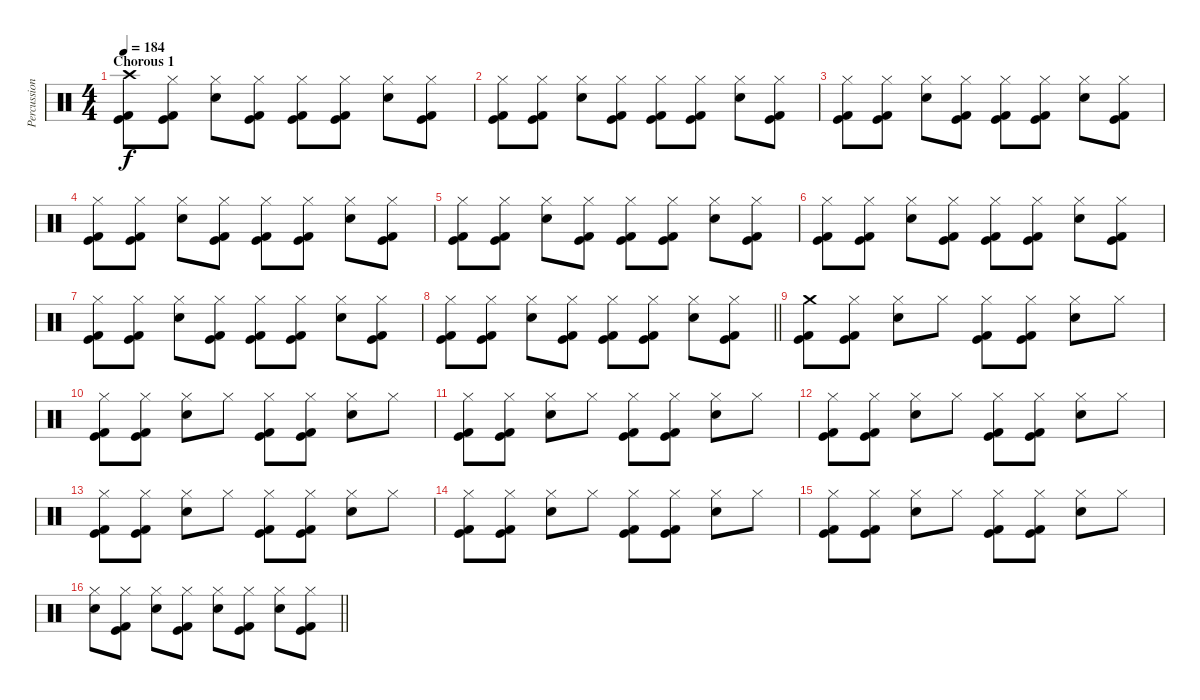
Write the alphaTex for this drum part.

\track ("Percussion" "Percussion") {instrument percussion}
\staff {score}
\articulation defaults
\ts (4 4)
\section ("" "Chorous 1")
\tempo 184
\clef neutral
\ks c
("Crash high (hit)" "Kick (hit)" "Kick (hit) 2").8{dy f} ("Hi-Hat (closed)" "Kick (hit)" "Kick (hit) 2").8 ("Hi-Hat (closed)" "Electric Snare (hit)").8 ("Hi-Hat (closed)" "Kick (hit)" "Kick (hit) 2").8 ("Hi-Hat (closed)" "Kick (hit)" "Kick (hit) 2").8 ("Hi-Hat (closed)" "Kick (hit)" "Kick (hit) 2").8 ("Hi-Hat (closed)" "Electric Snare (hit)").8 ("Hi-Hat (closed)" "Kick (hit)" "Kick (hit) 2").8 |
("Hi-Hat (closed)" "Kick (hit)" "Kick (hit) 2").8 ("Hi-Hat (closed)" "Kick (hit)" "Kick (hit) 2").8 ("Hi-Hat (closed)" "Electric Snare (hit)").8 ("Hi-Hat (closed)" "Kick (hit)" "Kick (hit) 2").8 ("Hi-Hat (closed)" "Kick (hit)" "Kick (hit) 2").8 ("Hi-Hat (closed)" "Kick (hit)" "Kick (hit) 2").8 ("Hi-Hat (closed)" "Electric Snare (hit)").8 ("Hi-Hat (closed)" "Kick (hit)" "Kick (hit) 2").8 |
("Hi-Hat (closed)" "Kick (hit)" "Kick (hit) 2").8 ("Hi-Hat (closed)" "Kick (hit)" "Kick (hit) 2").8 ("Hi-Hat (closed)" "Electric Snare (hit)").8 ("Hi-Hat (closed)" "Kick (hit)" "Kick (hit) 2").8 ("Hi-Hat (closed)" "Kick (hit)" "Kick (hit) 2").8 ("Hi-Hat (closed)" "Kick (hit)" "Kick (hit) 2").8 ("Hi-Hat (closed)" "Electric Snare (hit)").8 ("Hi-Hat (closed)" "Kick (hit)" "Kick (hit) 2").8 |
("Hi-Hat (closed)" "Kick (hit)" "Kick (hit) 2").8 ("Hi-Hat (closed)" "Kick (hit)" "Kick (hit) 2").8 ("Hi-Hat (closed)" "Electric Snare (hit)").8 ("Hi-Hat (closed)" "Kick (hit)" "Kick (hit) 2").8 ("Hi-Hat (closed)" "Kick (hit)" "Kick (hit) 2").8 ("Hi-Hat (closed)" "Kick (hit)" "Kick (hit) 2").8 ("Hi-Hat (closed)" "Electric Snare (hit)").8 ("Hi-Hat (closed)" "Kick (hit)" "Kick (hit) 2").8 |
("Hi-Hat (closed)" "Kick (hit)" "Kick (hit) 2").8 ("Hi-Hat (closed)" "Kick (hit)" "Kick (hit) 2").8 ("Hi-Hat (closed)" "Electric Snare (hit)").8 ("Hi-Hat (closed)" "Kick (hit)" "Kick (hit) 2").8 ("Hi-Hat (closed)" "Kick (hit)" "Kick (hit) 2").8 ("Hi-Hat (closed)" "Kick (hit)" "Kick (hit) 2").8 ("Hi-Hat (closed)" "Electric Snare (hit)").8 ("Hi-Hat (closed)" "Kick (hit)" "Kick (hit) 2").8 |
("Hi-Hat (closed)" "Kick (hit)" "Kick (hit) 2").8 ("Hi-Hat (closed)" "Kick (hit)" "Kick (hit) 2").8 ("Hi-Hat (closed)" "Electric Snare (hit)").8 ("Hi-Hat (closed)" "Kick (hit)" "Kick (hit) 2").8 ("Hi-Hat (closed)" "Kick (hit)" "Kick (hit) 2").8 ("Hi-Hat (closed)" "Kick (hit)" "Kick (hit) 2").8 ("Hi-Hat (closed)" "Electric Snare (hit)").8 ("Hi-Hat (closed)" "Kick (hit)" "Kick (hit) 2").8 |
("Hi-Hat (closed)" "Kick (hit)" "Kick (hit) 2").8 ("Hi-Hat (closed)" "Kick (hit)" "Kick (hit) 2").8 ("Hi-Hat (closed)" "Electric Snare (hit)").8 ("Hi-Hat (closed)" "Kick (hit)" "Kick (hit) 2").8 ("Hi-Hat (closed)" "Kick (hit)" "Kick (hit) 2").8 ("Hi-Hat (closed)" "Kick (hit)" "Kick (hit) 2").8 ("Hi-Hat (closed)" "Electric Snare (hit)").8 ("Hi-Hat (closed)" "Kick (hit)" "Kick (hit) 2").8 |
\barLineRight lightlight
("Hi-Hat (closed)" "Kick (hit)" "Kick (hit) 2").8 ("Hi-Hat (closed)" "Kick (hit)" "Kick (hit) 2").8 ("Hi-Hat (closed)" "Electric Snare (hit)").8 ("Hi-Hat (closed)" "Kick (hit)" "Kick (hit) 2").8 ("Hi-Hat (closed)" "Kick (hit)" "Kick (hit) 2").8 ("Hi-Hat (closed)" "Kick (hit)" "Kick (hit) 2").8 ("Hi-Hat (closed)" "Electric Snare (hit)").8 ("Hi-Hat (closed)" "Kick (hit)" "Kick (hit) 2").8 |
\section ("" "")
("Crash medium (hit)" "Kick (hit)" "Kick (hit) 2").8 ("Hi-Hat (closed)" "Kick (hit)" "Kick (hit) 2").8 ("Hi-Hat (closed)" "Electric Snare (hit)").8 "Hi-Hat (closed)".8 ("Hi-Hat (closed)" "Kick (hit)" "Kick (hit) 2").8 ("Hi-Hat (closed)" "Kick (hit)" "Kick (hit) 2").8 ("Hi-Hat (closed)" "Electric Snare (hit)").8 "Hi-Hat (closed)".8 |
("Hi-Hat (closed)" "Kick (hit)" "Kick (hit) 2").8 ("Hi-Hat (closed)" "Kick (hit)" "Kick (hit) 2").8 ("Hi-Hat (closed)" "Electric Snare (hit)").8 "Hi-Hat (closed)".8 ("Hi-Hat (closed)" "Kick (hit)" "Kick (hit) 2").8 ("Hi-Hat (closed)" "Kick (hit)" "Kick (hit) 2").8 ("Hi-Hat (closed)" "Electric Snare (hit)").8 "Hi-Hat (closed)".8 |
("Hi-Hat (closed)" "Kick (hit)" "Kick (hit) 2").8 ("Hi-Hat (closed)" "Kick (hit)" "Kick (hit) 2").8 ("Hi-Hat (closed)" "Electric Snare (hit)").8 "Hi-Hat (closed)".8 ("Hi-Hat (closed)" "Kick (hit)" "Kick (hit) 2").8 ("Hi-Hat (closed)" "Kick (hit)" "Kick (hit) 2").8 ("Hi-Hat (closed)" "Electric Snare (hit)").8 "Hi-Hat (closed)".8 |
("Hi-Hat (closed)" "Kick (hit)" "Kick (hit) 2").8 ("Hi-Hat (closed)" "Kick (hit)" "Kick (hit) 2").8 ("Hi-Hat (closed)" "Electric Snare (hit)").8 "Hi-Hat (closed)".8 ("Hi-Hat (closed)" "Kick (hit)" "Kick (hit) 2").8 ("Hi-Hat (closed)" "Kick (hit)" "Kick (hit) 2").8 ("Hi-Hat (closed)" "Electric Snare (hit)").8 "Hi-Hat (closed)".8 |
("Hi-Hat (closed)" "Kick (hit)" "Kick (hit) 2").8 ("Hi-Hat (closed)" "Kick (hit)" "Kick (hit) 2").8 ("Hi-Hat (closed)" "Electric Snare (hit)").8 "Hi-Hat (closed)".8 ("Hi-Hat (closed)" "Kick (hit)" "Kick (hit) 2").8 ("Hi-Hat (closed)" "Kick (hit)" "Kick (hit) 2").8 ("Hi-Hat (closed)" "Electric Snare (hit)").8 "Hi-Hat (closed)".8 |
("Hi-Hat (closed)" "Kick (hit)" "Kick (hit) 2").8 ("Hi-Hat (closed)" "Kick (hit)" "Kick (hit) 2").8 ("Hi-Hat (closed)" "Electric Snare (hit)").8 "Hi-Hat (closed)".8 ("Hi-Hat (closed)" "Kick (hit)" "Kick (hit) 2").8 ("Hi-Hat (closed)" "Kick (hit)" "Kick (hit) 2").8 ("Hi-Hat (closed)" "Electric Snare (hit)").8 "Hi-Hat (closed)".8 |
("Hi-Hat (closed)" "Kick (hit)" "Kick (hit) 2").8 ("Hi-Hat (closed)" "Kick (hit)" "Kick (hit) 2").8 ("Hi-Hat (closed)" "Electric Snare (hit)").8 "Hi-Hat (closed)".8 ("Hi-Hat (closed)" "Kick (hit)" "Kick (hit) 2").8 ("Hi-Hat (closed)" "Kick (hit)" "Kick (hit) 2").8 ("Hi-Hat (closed)" "Electric Snare (hit)").8 "Hi-Hat (closed)".8 |
\barLineRight lightlight
("Hi-Hat (closed)" "Electric Snare (hit)").8 ("Hi-Hat (closed)" "Kick (hit)" "Kick (hit) 2").8 ("Hi-Hat (closed)" "Electric Snare (hit)").8 ("Hi-Hat (closed)" "Kick (hit)" "Kick (hit) 2").8 ("Hi-Hat (closed)" "Electric Snare (hit)").8 ("Hi-Hat (closed)" "Kick (hit)" "Kick (hit) 2").8 ("Hi-Hat (closed)" "Electric Snare (hit)").8 ("Hi-Hat (closed)" "Kick (hit)" "Kick (hit) 2").8
